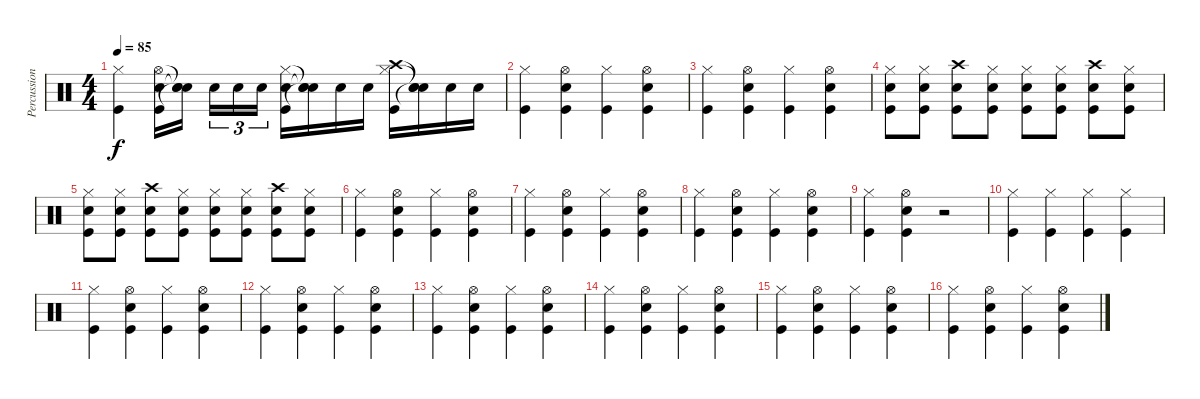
\track ("Percussions" "Percussion") {instrument percussion}
\staff {score}
\articulation defaults
\ts (4 4)
\tempo 85
\clef neutral
\ks c
("Hi-Hat (closed)" "Kick (hit)").4{dy f} ("Kick (hit)" "Snare (hit) 2" "Hi-Hat (open)").16 ("Snare (hit)"{t} "Snare (hit)"{t} "Snare (hit)"{t}).16 "Snare (hit) 2".16{tu (3 2)} "Snare (hit) 2".16{tu (3 2)} "Snare (hit) 2".16{tu (3 2)} ("Hi-Hat (closed)" "Snare (hit) 2" "Kick (hit)").16 ("Snare (hit)"{t} "Snare (hit)"{t} "Snare (hit)"{t}).16 "Snare (hit) 2".16 "Snare (hit) 2".16 ("Hi-Hat (closed)" "Kick (hit)" "Crash high (hit)").16 ("Snare (hit)"{t} "Snare (hit)"{t} "Snare (hit)"{t}).16 "Snare (hit) 2".16 "Snare (hit) 2".16 |
("Kick (hit)" "Hi-Hat (closed)").4 ("Kick (hit)" "Snare (hit) 2" "Hi-Hat (open)").4 ("Kick (hit)" "Hi-Hat (closed)").4 ("Kick (hit)" "Snare (hit) 2" "Hi-Hat (open)").4 |
("Kick (hit)" "Hi-Hat (closed)").4 ("Kick (hit)" "Snare (hit) 2" "Hi-Hat (open)").4 ("Kick (hit)" "Hi-Hat (closed)").4 ("Kick (hit)" "Snare (hit) 2" "Hi-Hat (open)").4 |
("Kick (hit)" "Snare (hit) 2" "Hi-Hat (closed)").8 ("Kick (hit)" "Snare (hit) 2" "Hi-Hat (closed)").8 ("Kick (hit)" "Snare (hit) 2" "Crash high (hit)").8 ("Kick (hit)" "Snare (hit) 2" "Hi-Hat (closed)").8 ("Kick (hit)" "Snare (hit) 2" "Hi-Hat (closed)").8 ("Kick (hit)" "Snare (hit) 2" "Hi-Hat (closed)").8 ("Kick (hit)" "Snare (hit) 2" "Crash high (hit)").8 ("Kick (hit)" "Snare (hit) 2" "Hi-Hat (closed)").8 |
("Kick (hit)" "Snare (hit) 2" "Hi-Hat (closed)").8 ("Kick (hit)" "Snare (hit) 2" "Hi-Hat (closed)").8 ("Kick (hit)" "Snare (hit) 2" "Crash high (hit)").8 ("Kick (hit)" "Snare (hit) 2" "Hi-Hat (closed)").8 ("Kick (hit)" "Snare (hit) 2" "Hi-Hat (closed)").8 ("Kick (hit)" "Snare (hit) 2" "Hi-Hat (closed)").8 ("Kick (hit)" "Snare (hit) 2" "Crash high (hit)").8 ("Kick (hit)" "Snare (hit) 2" "Hi-Hat (closed)").8 |
("Kick (hit)" "Hi-Hat (closed)").4 ("Kick (hit)" "Snare (hit) 2" "Hi-Hat (open)").4 ("Kick (hit)" "Hi-Hat (closed)").4 ("Kick (hit)" "Snare (hit) 2" "Hi-Hat (open)").4 |
("Kick (hit)" "Hi-Hat (closed)").4 ("Kick (hit)" "Snare (hit) 2" "Hi-Hat (open)").4 ("Kick (hit)" "Hi-Hat (closed)").4 ("Kick (hit)" "Snare (hit) 2" "Hi-Hat (open)").4 |
("Kick (hit)" "Hi-Hat (closed)").4 ("Kick (hit)" "Snare (hit) 2" "Hi-Hat (open)").4 ("Kick (hit)" "Hi-Hat (closed)").4 ("Kick (hit)" "Snare (hit) 2" "Hi-Hat (open)").4 |
("Kick (hit)" "Hi-Hat (closed)").4 ("Kick (hit)" "Snare (hit) 2" "Hi-Hat (open)").4 r.2 |
("Kick (hit)" "Hi-Hat (closed)").4 ("Kick (hit)" "Hi-Hat (closed)").4 ("Kick (hit)" "Hi-Hat (closed)").4 ("Kick (hit)" "Hi-Hat (closed)").4 |
("Kick (hit)" "Hi-Hat (closed)").4 ("Kick (hit)" "Snare (hit) 2" "Hi-Hat (open)").4 ("Kick (hit)" "Hi-Hat (closed)").4 ("Kick (hit)" "Snare (hit) 2" "Hi-Hat (open)").4 |
("Kick (hit)" "Hi-Hat (closed)").4 ("Kick (hit)" "Snare (hit) 2" "Hi-Hat (open)").4 ("Kick (hit)" "Hi-Hat (closed)").4 ("Kick (hit)" "Snare (hit) 2" "Hi-Hat (open)").4 |
("Kick (hit)" "Hi-Hat (closed)").4 ("Kick (hit)" "Snare (hit) 2" "Hi-Hat (open)").4 ("Kick (hit)" "Hi-Hat (closed)").4 ("Kick (hit)" "Snare (hit) 2" "Hi-Hat (open)").4 |
("Kick (hit)" "Hi-Hat (closed)").4 ("Kick (hit)" "Snare (hit) 2" "Hi-Hat (open)").4 ("Kick (hit)" "Hi-Hat (closed)").4 ("Kick (hit)" "Snare (hit) 2" "Hi-Hat (open)").4 |
("Kick (hit)" "Hi-Hat (closed)").4 ("Kick (hit)" "Snare (hit) 2" "Hi-Hat (open)").4 ("Kick (hit)" "Hi-Hat (closed)").4 ("Kick (hit)" "Snare (hit) 2" "Hi-Hat (open)").4 |
("Kick (hit)" "Hi-Hat (closed)").4 ("Kick (hit)" "Snare (hit) 2" "Hi-Hat (open)").4 ("Kick (hit)" "Hi-Hat (closed)").4 ("Kick (hit)" "Snare (hit) 2" "Hi-Hat (open)").4
